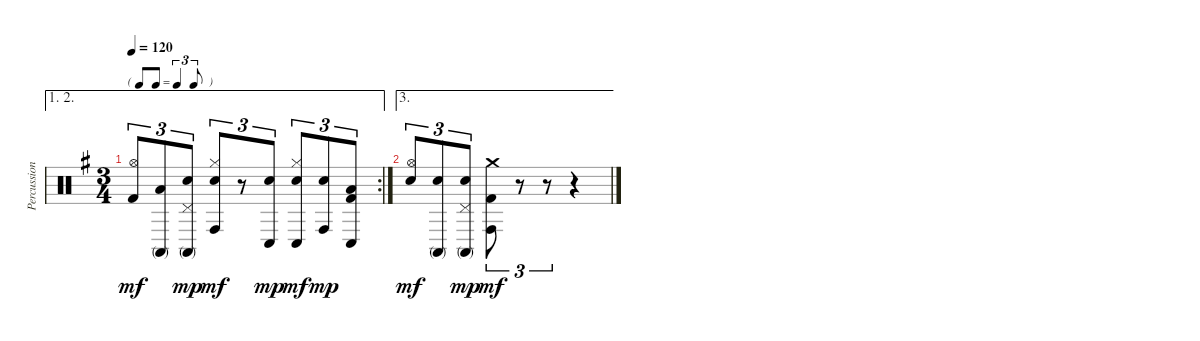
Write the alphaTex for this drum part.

\track ("Percussion" "Percussion") {instrument percussion}
\staff {score}
\articulation defaults
\ae (1 2)
\rc 2
\ts (3 4)
\tf triplet8th
\tempo 120
\clef neutral
\ks g
("Hi-Hat (open)" "Kick (hit) 2").8{tu (3 2) dy mf} ("Conga high (mute)" "Low Tom (hit)").8{tu (3 2)} ("Conga high (mute)" "Pedal Hi-Hat (hit)" "Snare (hit) 2").8{tu (3 2) dy mp} ("Conga high (hit)" "Hi-Hat (closed)" "Snare (hit) 2").8{tu (3 2) dy mf} r.8{tu (3 2)} ("Conga low (hit)" "Snare (hit) 2").8{tu (3 2) dy mp} ("Conga low (hit)" "Hi-Hat (closed)" "Snare (hit) 2").8{tu (3 2) dy mf} ("Conga high (hit)" "Snare (hit) 2").8{tu (3 2) dy mp} ("Conga low (hit)" "Kick (hit) 2" "Low Floor Tom (hit)").8{tu (3 2)} |
\ae 3
("Hi-Hat (open)" "Snare (hit) 2").8{tu (3 2) dy mf} ("Conga high (mute)" "Snare (hit) 2").8{tu (3 2)} ("Conga high (mute)" "Pedal Hi-Hat (hit)" "Snare (hit) 2").8{tu (3 2) dy mp} ("Conga high (hit)" "Crash medium (hit)" "Kick (hit) 2").8{tu (3 2) dy mf} r.8{tu (3 2)} r.8{tu (3 2)} r.4
